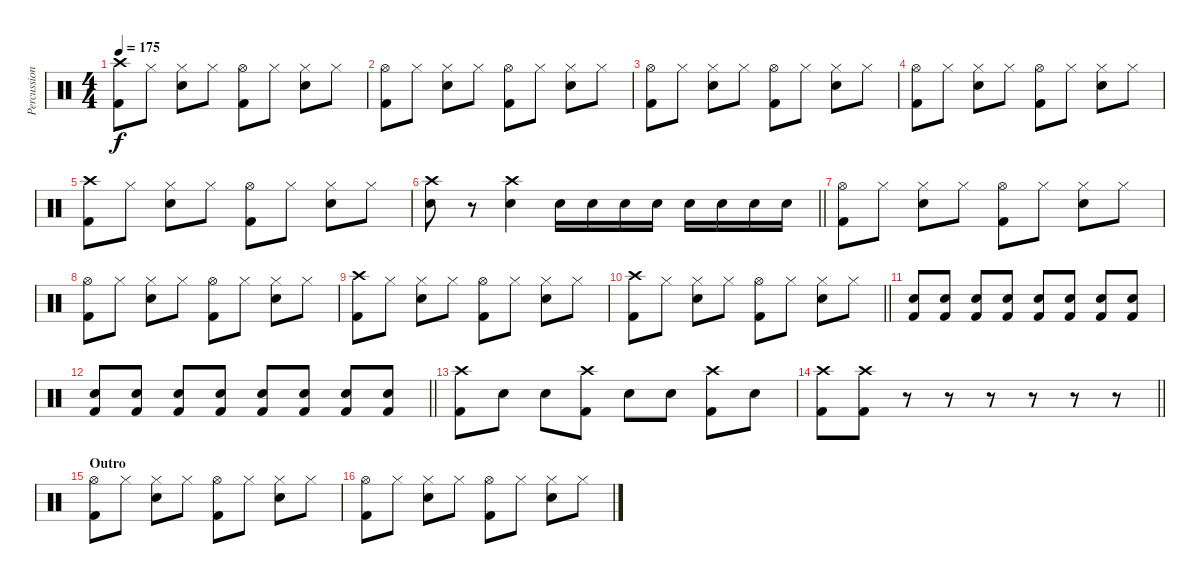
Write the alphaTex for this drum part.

\track ("Percussion" "Percussion") {instrument percussion}
\staff {score}
\articulation defaults
\ts (4 4)
\tempo 175
\clef neutral
\ks c
("Crash high (hit)" "Kick (hit) 2").8{dy f} "Hi-Hat (closed)".8 ("Hi-Hat (closed)" "Snare (hit) 2").8 "Hi-Hat (closed)".8 ("Hi-Hat (open)" "Kick (hit) 2").8 "Hi-Hat (closed)".8 ("Hi-Hat (closed)" "Snare (hit) 2").8 "Hi-Hat (closed)".8 |
("Hi-Hat (open)" "Kick (hit) 2").8 "Hi-Hat (closed)".8 ("Hi-Hat (closed)" "Snare (hit) 2").8 "Hi-Hat (closed)".8 ("Hi-Hat (open)" "Kick (hit) 2").8 "Hi-Hat (closed)".8 ("Hi-Hat (closed)" "Snare (hit) 2").8 "Hi-Hat (closed)".8 |
("Hi-Hat (open)" "Kick (hit) 2").8 "Hi-Hat (closed)".8 ("Hi-Hat (closed)" "Snare (hit) 2").8 "Hi-Hat (closed)".8 ("Hi-Hat (open)" "Kick (hit) 2").8 "Hi-Hat (closed)".8 ("Hi-Hat (closed)" "Snare (hit) 2").8 "Hi-Hat (closed)".8 |
("Hi-Hat (open)" "Kick (hit) 2").8 "Hi-Hat (closed)".8 ("Hi-Hat (closed)" "Snare (hit) 2").8 "Hi-Hat (closed)".8 ("Hi-Hat (open)" "Kick (hit) 2").8 "Hi-Hat (closed)".8 ("Hi-Hat (closed)" "Snare (hit) 2").8 "Hi-Hat (closed)".8 |
("Crash high (hit)" "Kick (hit) 2").8 "Hi-Hat (closed)".8 ("Hi-Hat (closed)" "Snare (hit) 2").8 "Hi-Hat (closed)".8 ("Hi-Hat (open)" "Kick (hit) 2").8 "Hi-Hat (closed)".8 ("Hi-Hat (closed)" "Snare (hit) 2").8 "Hi-Hat (closed)".8 |
\barLineRight lightlight
("Crash high (hit)" "Snare (hit) 2").8 r.8 ("Crash high (hit)" "Snare (hit) 2").4 "Snare (hit) 2".16 "Snare (hit) 2".16 "Snare (hit) 2".16 "Snare (hit) 2".16 "Snare (hit) 2".16 "Snare (hit) 2".16 "Snare (hit) 2".16 "Snare (hit) 2".16 |
("Hi-Hat (open)" "Kick (hit) 2").8 "Hi-Hat (closed)".8 ("Hi-Hat (closed)" "Snare (hit) 2").8 "Hi-Hat (closed)".8 ("Hi-Hat (open)" "Kick (hit) 2").8 "Hi-Hat (closed)".8 ("Hi-Hat (closed)" "Snare (hit) 2").8 "Hi-Hat (closed)".8 |
("Hi-Hat (open)" "Kick (hit) 2").8 "Hi-Hat (closed)".8 ("Hi-Hat (closed)" "Snare (hit) 2").8 "Hi-Hat (closed)".8 ("Hi-Hat (open)" "Kick (hit) 2").8 "Hi-Hat (closed)".8 ("Hi-Hat (closed)" "Snare (hit) 2").8 "Hi-Hat (closed)".8 |
("Crash high (hit)" "Kick (hit) 2").8 "Hi-Hat (closed)".8 ("Hi-Hat (closed)" "Snare (hit) 2").8 "Hi-Hat (closed)".8 ("Hi-Hat (open)" "Kick (hit) 2").8 "Hi-Hat (closed)".8 ("Hi-Hat (closed)" "Snare (hit) 2").8 "Hi-Hat (closed)".8 |
\barLineRight lightlight
("Crash high (hit)" "Kick (hit) 2").8 "Hi-Hat (closed)".8 ("Hi-Hat (closed)" "Snare (hit) 2").8 "Hi-Hat (closed)".8 ("Hi-Hat (open)" "Kick (hit) 2").8 "Hi-Hat (closed)".8 ("Hi-Hat (closed)" "Snare (hit) 2").8 "Hi-Hat (closed)".8 |
("Snare (hit) 2" "Kick (hit) 2").8 ("Snare (hit) 2" "Kick (hit) 2").8 ("Snare (hit) 2" "Kick (hit) 2").8 ("Snare (hit) 2" "Kick (hit) 2").8 ("Snare (hit) 2" "Kick (hit) 2").8 ("Snare (hit) 2" "Kick (hit) 2").8 ("Snare (hit) 2" "Kick (hit) 2").8 ("Snare (hit) 2" "Kick (hit) 2").8 |
\barLineRight lightlight
("Snare (hit) 2" "Kick (hit) 2").8 ("Snare (hit) 2" "Kick (hit) 2").8 ("Snare (hit) 2" "Kick (hit) 2").8 ("Snare (hit) 2" "Kick (hit) 2").8 ("Snare (hit) 2" "Kick (hit) 2").8 ("Snare (hit) 2" "Kick (hit) 2").8 ("Snare (hit) 2" "Kick (hit) 2").8 ("Snare (hit) 2" "Kick (hit) 2").8 |
("Crash high (hit)" "Kick (hit) 2").8 "Snare (hit) 2".8 "Snare (hit) 2".8 ("Crash high (hit)" "Kick (hit) 2").8 "Snare (hit) 2".8 "Snare (hit) 2".8 ("Crash high (hit)" "Kick (hit) 2").8 "Snare (hit) 2".8 |
\barLineRight lightlight
("Crash high (hit)" "Kick (hit) 2").8 ("Crash high (hit)" "Kick (hit) 2").8 r.8 r.8 r.8 r.8 r.8 r.8 |
\section ("" "Outro")
("Hi-Hat (open)" "Kick (hit) 2").8 "Hi-Hat (closed)".8 ("Hi-Hat (closed)" "Snare (hit) 2").8 "Hi-Hat (closed)".8 ("Hi-Hat (open)" "Kick (hit) 2").8 "Hi-Hat (closed)".8 ("Hi-Hat (closed)" "Snare (hit) 2").8 "Hi-Hat (closed)".8 |
("Hi-Hat (open)" "Kick (hit) 2").8 "Hi-Hat (closed)".8 ("Hi-Hat (closed)" "Snare (hit) 2").8 "Hi-Hat (closed)".8 ("Hi-Hat (open)" "Kick (hit) 2").8 "Hi-Hat (closed)".8 ("Hi-Hat (closed)" "Snare (hit) 2").8 "Hi-Hat (closed)".8
